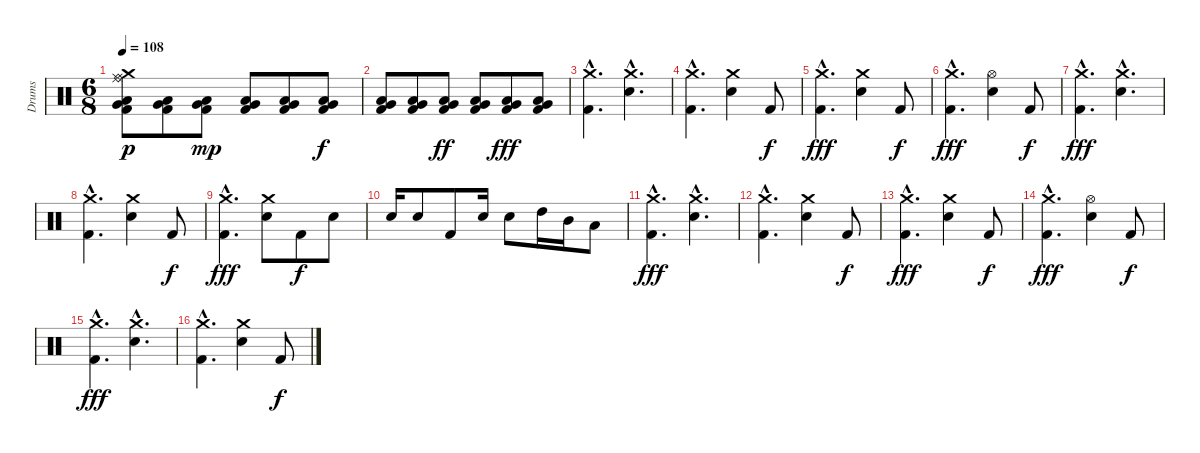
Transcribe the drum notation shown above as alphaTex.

\track ("Drums" "Drums") {instrument percussion}
\staff {score}
\articulation defaults
\ts (6 8)
\tempo 108
\clef neutral
\ks c
("Ride (bell)" "Ride (middle)" "Crash medium (hit)" "Very Low Tom (hit)" "Low Tom (hit)" "Kick (hit) 2").8{dy p} ("Very Low Tom (hit)" "Low Tom (hit)" "Kick (hit) 2").8 ("Very Low Tom (hit)" "Low Tom (hit)" "Kick (hit) 2").8{dy mp} ("Very Low Tom (hit)" "Low Tom (hit)" "Kick (hit) 2").8 ("Very Low Tom (hit)" "Low Tom (hit)" "Kick (hit) 2").8 ("Very Low Tom (hit)" "Low Tom (hit)" "Kick (hit) 2").8{dy f} |
("Very Low Tom (hit)" "Low Tom (hit)" "Kick (hit) 2").8 ("Very Low Tom (hit)" "Low Tom (hit)" "Kick (hit) 2").8 ("Very Low Tom (hit)" "Low Tom (hit)" "Kick (hit) 2").8{dy ff} ("Very Low Tom (hit)" "Low Tom (hit)" "Kick (hit) 2").8 ("Very Low Tom (hit)" "Low Tom (hit)" "Kick (hit) 2").8{dy fff} ("Very Low Tom (hit)" "Low Tom (hit)" "Kick (hit) 2").8 |
("Crash medium (hit)"{hac} "Kick (hit) 2"{hac}).4{d} ("Crash medium (hit)"{hac} "Snare (hit) 2"{hac}).4{d} |
("Crash medium (hit)"{hac} "Kick (hit) 2"{hac}).4{d} ("Crash medium (hit)" "Snare (hit) 2").4 "Kick (hit) 2".8{dy f} |
("Crash medium (hit)"{hac} "Kick (hit) 2"{hac}).4{d dy fff} ("Crash medium (hit)" "Snare (hit) 2").4 "Kick (hit) 2".8{dy f} |
("Crash medium (hit)"{hac} "Kick (hit) 2"{hac}).4{d dy fff} ("Hi-Hat (open)" "Snare (hit) 2").4 "Kick (hit) 2".8{dy f} |
("Crash medium (hit)"{hac} "Kick (hit) 2"{hac}).4{d dy fff} ("Crash medium (hit)"{hac} "Snare (hit) 2"{hac}).4{d} |
("Crash medium (hit)"{hac} "Kick (hit) 2"{hac}).4{d} ("Crash medium (hit)" "Snare (hit) 2").4 "Kick (hit) 2".8{dy f} |
("Crash medium (hit)"{hac} "Kick (hit) 2"{hac}).4{d dy fff} ("Crash medium (hit)" "Snare (hit) 2").8 "Kick (hit) 2".8{dy f} "Snare (hit) 2".8 |
"Snare (hit) 2".16 "Snare (hit) 2".8 "Kick (hit) 2".8 "Snare (hit) 2".16 "Snare (hit) 2".8 "High Tom (hit)".16 "Mid Tom (hit)".16 "Low Tom (hit)".8 |
("Crash medium (hit)"{hac} "Kick (hit) 2"{hac}).4{d dy fff} ("Crash medium (hit)"{hac} "Snare (hit) 2"{hac}).4{d} |
("Crash medium (hit)"{hac} "Kick (hit) 2"{hac}).4{d} ("Crash medium (hit)" "Snare (hit) 2").4 "Kick (hit) 2".8{dy f} |
("Crash medium (hit)"{hac} "Kick (hit) 2"{hac}).4{d dy fff} ("Crash medium (hit)" "Snare (hit) 2").4 "Kick (hit) 2".8{dy f} |
("Crash medium (hit)"{hac} "Kick (hit) 2"{hac}).4{d dy fff} ("Hi-Hat (open)" "Snare (hit) 2").4 "Kick (hit) 2".8{dy f} |
("Crash medium (hit)"{hac} "Kick (hit) 2"{hac}).4{d dy fff} ("Crash medium (hit)"{hac} "Snare (hit) 2"{hac}).4{d} |
("Crash medium (hit)"{hac} "Kick (hit) 2"{hac}).4{d} ("Crash medium (hit)" "Snare (hit) 2").4 "Kick (hit) 2".8{dy f}
